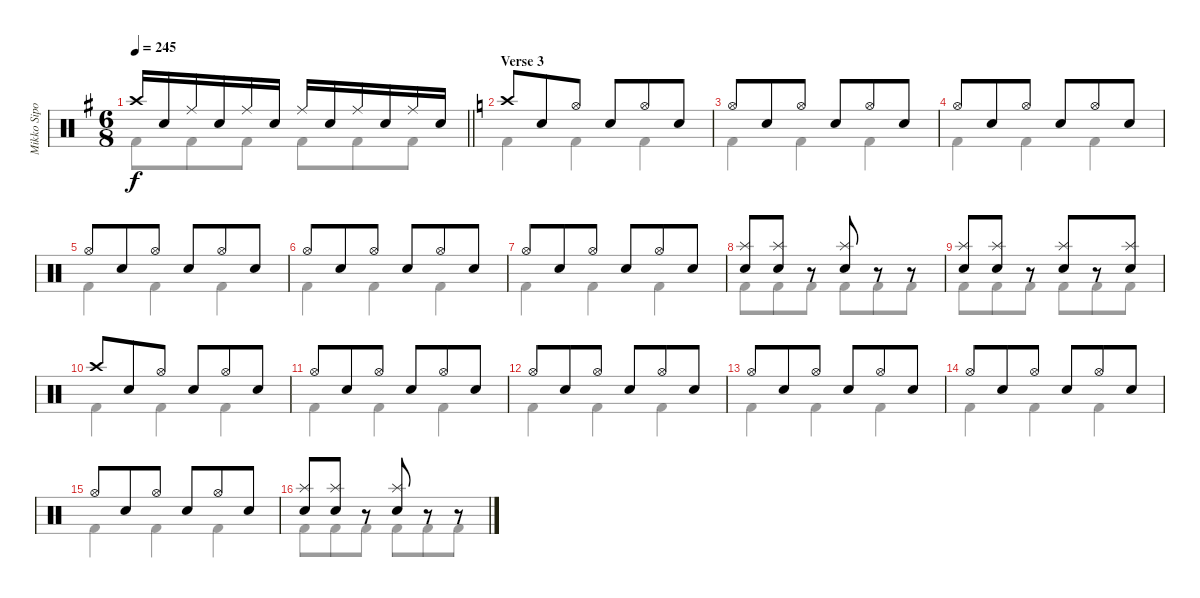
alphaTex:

\track ("Mikko Sipola (drums)" "Mikko Sipo") {instrument percussion}
\staff {score}
\articulation defaults
\voice
\ts (6 8)
\tempo 245
\clef neutral
\barLineRight lightlight
\ks eminor "Crash high (hit)".16{dy f} "Snare (hit) 2".16 "Ride (middle)".16 "Snare (hit) 2".16 "Ride (middle)".16 "Snare (hit) 2".16 "Ride (middle)".16 "Snare (hit) 2".16 "Ride (middle)".16 "Snare (hit) 2".16 "Ride (middle)".16 "Snare (hit) 2".16
|
\section ("" "Verse 3")
\ks aminor "Crash high (hit)".8 "Snare (hit) 2".8 "Hi-Hat (open)".8 "Snare (hit) 2".8 "Hi-Hat (open)".8 "Snare (hit) 2".8
|
"Hi-Hat (open)".8 "Snare (hit) 2".8 "Hi-Hat (open)".8 "Snare (hit) 2".8 "Hi-Hat (open)".8 "Snare (hit) 2".8 |
"Hi-Hat (open)".8 "Snare (hit) 2".8 "Hi-Hat (open)".8 "Snare (hit) 2".8 "Hi-Hat (open)".8 "Snare (hit) 2".8 |
"Hi-Hat (open)".8 "Snare (hit) 2".8 "Hi-Hat (open)".8 "Snare (hit) 2".8 "Hi-Hat (open)".8 "Snare (hit) 2".8 |
"Hi-Hat (open)".8 "Snare (hit) 2".8 "Hi-Hat (open)".8 "Snare (hit) 2".8 "Hi-Hat (open)".8 "Snare (hit) 2".8 |
"Hi-Hat (open)".8 "Snare (hit) 2".8 "Hi-Hat (open)".8 "Snare (hit) 2".8 "Hi-Hat (open)".8 "Snare (hit) 2".8 |
("Splash (hit)" "Snare (hit) 2").8 ("Splash (hit)" "Snare (hit) 2").8 r.8 ("Splash (hit)" "Snare (hit) 2").8 r.8 r.8 |
("Splash (hit)" "Snare (hit) 2").8 ("Splash (hit)" "Snare (hit) 2").8 r.8 ("Splash (hit)" "Snare (hit) 2").8 r.8 ("Splash (hit)" "Snare (hit) 2").8 |
"Crash high (hit)".8 "Snare (hit) 2".8 "Hi-Hat (open)".8 "Snare (hit) 2".8 "Hi-Hat (open)".8 "Snare (hit) 2".8 |
"Hi-Hat (open)".8 "Snare (hit) 2".8 "Hi-Hat (open)".8 "Snare (hit) 2".8 "Hi-Hat (open)".8 "Snare (hit) 2".8 |
"Hi-Hat (open)".8 "Snare (hit) 2".8 "Hi-Hat (open)".8 "Snare (hit) 2".8 "Hi-Hat (open)".8 "Snare (hit) 2".8 |
"Hi-Hat (open)".8 "Snare (hit) 2".8 "Hi-Hat (open)".8 "Snare (hit) 2".8 "Hi-Hat (open)".8 "Snare (hit) 2".8 |
"Hi-Hat (open)".8 "Snare (hit) 2".8 "Hi-Hat (open)".8 "Snare (hit) 2".8 "Hi-Hat (open)".8 "Snare (hit) 2".8 |
"Hi-Hat (open)".8 "Snare (hit) 2".8 "Hi-Hat (open)".8 "Snare (hit) 2".8 "Hi-Hat (open)".8 "Snare (hit) 2".8 |
("Splash (hit)" "Snare (hit) 2").8 ("Splash (hit)" "Snare (hit) 2").8 r.8 ("Splash (hit)" "Snare (hit) 2").8 r.8 r.8
\voice
\clef neutral
\ottava regular
\simile none
\barLineRight lightlight
\ks eminor "Kick (hit) 2".8{dy f} "Kick (hit) 2".8 "Kick (hit) 2".8 "Kick (hit) 2".8 "Kick (hit) 2".8 "Kick (hit) 2".8
|
\ks aminor "Kick (hit) 2".4 "Kick (hit) 2".4 "Kick (hit) 2".4
|
"Kick (hit) 2".4 "Kick (hit) 2".4 "Kick (hit) 2".4 |
"Kick (hit) 2".4 "Kick (hit) 2".4 "Kick (hit) 2".4 |
"Kick (hit) 2".4 "Kick (hit) 2".4 "Kick (hit) 2".4 |
"Kick (hit) 2".4 "Kick (hit) 2".4 "Kick (hit) 2".4 |
"Kick (hit) 2".4 "Kick (hit) 2".4 "Kick (hit) 2".4 |
"Kick (hit) 2".8 "Kick (hit) 2".8 "Kick (hit) 2".8 "Kick (hit) 2".8 "Kick (hit) 2".8 "Kick (hit) 2".8 |
"Kick (hit) 2".8 "Kick (hit) 2".8 "Kick (hit) 2".8 "Kick (hit) 2".8 "Kick (hit) 2".8 "Kick (hit) 2".8 |
"Kick (hit) 2".4 "Kick (hit) 2".4 "Kick (hit) 2".4 |
"Kick (hit) 2".4 "Kick (hit) 2".4 "Kick (hit) 2".4 |
"Kick (hit) 2".4 "Kick (hit) 2".4 "Kick (hit) 2".4 |
"Kick (hit) 2".4 "Kick (hit) 2".4 "Kick (hit) 2".4 |
"Kick (hit) 2".4 "Kick (hit) 2".4 "Kick (hit) 2".4 |
"Kick (hit) 2".4 "Kick (hit) 2".4 "Kick (hit) 2".4 |
"Kick (hit) 2".8 "Kick (hit) 2".8 "Kick (hit) 2".8 "Kick (hit) 2".8 "Kick (hit) 2".8 "Kick (hit) 2".8
